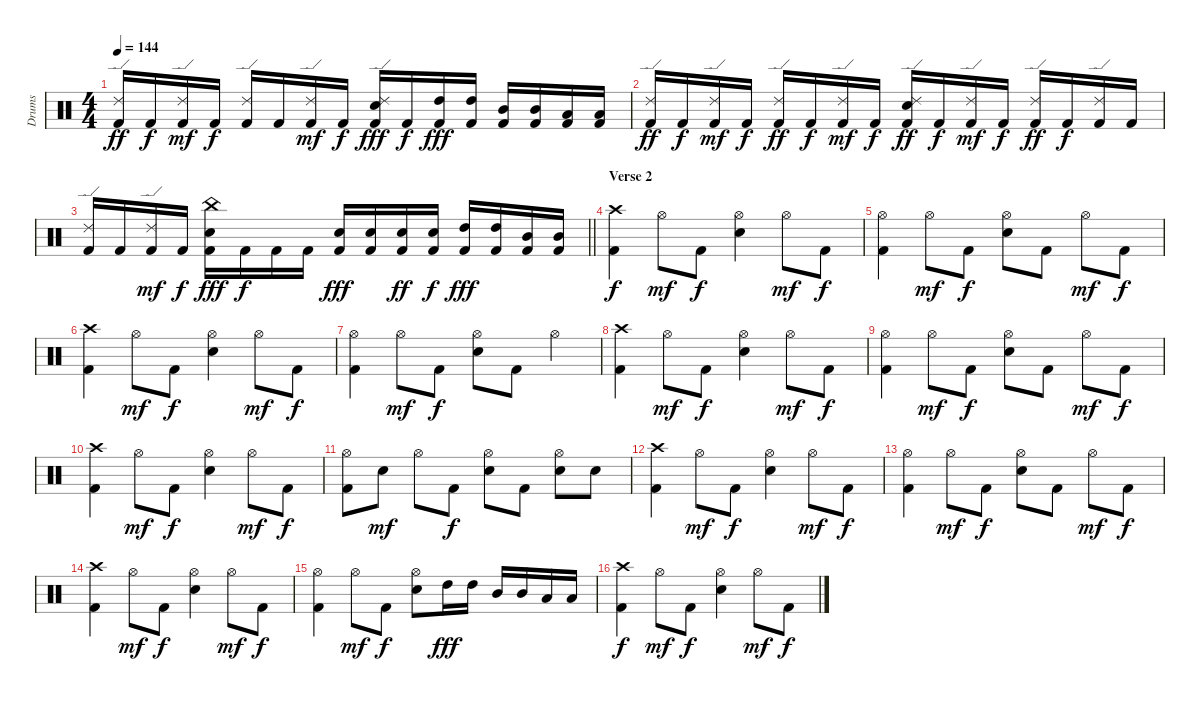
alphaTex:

\track ("Drums" "Drums") {instrument percussion}
\staff {score}
\articulation defaults
\ts (4 4)
\tempo 144
\clef neutral
\ks c
("Ride (edge) 2" "Kick (hit) 2").16{dy ff} "Kick (hit) 2".16{dy f} ("Ride (edge) 2" "Kick (hit) 2").16{dy mf} "Kick (hit) 2".16{dy f} ("Ride (edge) 2" "Kick (hit) 2").16 "Kick (hit) 2".16 ("Ride (edge) 2" "Kick (hit) 2").16{dy mf} "Kick (hit) 2".16{dy f} ("Ride (edge) 2" "Electric Snare (hit)" "Kick (hit) 2").16{dy fff} "Kick (hit) 2".16{dy f} ("High Tom (hit)" "Kick (hit) 2").16{dy fff} ("High Tom (hit)" "Kick (hit) 2").16 ("Mid Tom (hit)" "Kick (hit) 2").16 ("Mid Tom (hit)" "Kick (hit) 2").16 ("Low Tom (hit)" "Kick (hit) 2").16 ("Low Tom (hit)" "Kick (hit) 2").16 |
("Ride (edge) 2" "Kick (hit) 2").16{dy ff} "Kick (hit) 2".16{dy f} ("Ride (edge) 2" "Kick (hit) 2").16{dy mf} "Kick (hit) 2".16{dy f} ("Ride (edge) 2" "Kick (hit) 2").16{dy ff} "Kick (hit) 2".16{dy f} ("Ride (edge) 2" "Kick (hit) 2").16{dy mf} "Kick (hit) 2".16{dy f} ("Ride (edge) 2" "Electric Snare (hit)" "Kick (hit) 2").16{dy ff} "Kick (hit) 2".16{dy f} ("Ride (edge) 2" "Kick (hit) 2").16{dy mf} "Kick (hit) 2".16{dy f} ("Ride (edge) 2" "Kick (hit) 2").16{dy ff} "Kick (hit) 2".16{dy f} ("Ride (edge) 2" "Kick (hit) 2").16 "Kick (hit) 2".16 |
\barLineRight lightlight
("Ride (edge) 2" "Kick (hit) 2").16 "Kick (hit) 2".16 ("Ride (edge) 2" "Kick (hit) 2").16{dy mf} "Kick (hit) 2".16{dy f} ("China (hit)" "Electric Snare (hit)" "Kick (hit) 2").16{dy fff} "Kick (hit) 2".16{dy f} "Kick (hit) 2".16 "Kick (hit) 2".16 ("Electric Snare (hit)" "Kick (hit) 2").16{dy fff} ("Electric Snare (hit)" "Kick (hit) 2").16 ("Electric Snare (hit)" "Kick (hit) 2").16{dy ff} ("Electric Snare (hit)" "Kick (hit) 2").16{dy f} ("High Tom (hit)" "Kick (hit) 2").16{dy fff} ("High Tom (hit)" "Kick (hit) 2").16 ("Mid Tom (hit)" "Kick (hit) 2").16 ("Mid Tom (hit)" "Kick (hit) 2").16 |
\section ("" "Verse 2")
("Crash high (hit)" "Kick (hit) 2").4{dy f} "Hi-Hat (open)".8{dy mf} "Kick (hit) 2".8{dy f} ("Hi-Hat (open)" "Electric Snare (hit)").4 "Hi-Hat (open)".8{dy mf} "Kick (hit) 2".8{dy f} |
("Hi-Hat (open)" "Kick (hit) 2").4 "Hi-Hat (open)".8{dy mf} "Kick (hit) 2".8{dy f} ("Hi-Hat (open)" "Electric Snare (hit)").8 "Kick (hit) 2".8 "Hi-Hat (open)".8{dy mf} "Kick (hit) 2".8{dy f} |
("Crash high (hit)" "Kick (hit) 2").4 "Hi-Hat (open)".8{dy mf} "Kick (hit) 2".8{dy f} ("Hi-Hat (open)" "Electric Snare (hit)").4 "Hi-Hat (open)".8{dy mf} "Kick (hit) 2".8{dy f} |
("Hi-Hat (open)" "Kick (hit) 2").4 "Hi-Hat (open)".8{dy mf} "Kick (hit) 2".8{dy f} ("Hi-Hat (open)" "Electric Snare (hit)").8 "Kick (hit) 2".8 "Hi-Hat (open)".4 |
("Crash high (hit)" "Kick (hit) 2").4 "Hi-Hat (open)".8{dy mf} "Kick (hit) 2".8{dy f} ("Hi-Hat (open)" "Electric Snare (hit)").4 "Hi-Hat (open)".8{dy mf} "Kick (hit) 2".8{dy f} |
("Hi-Hat (open)" "Kick (hit) 2").4 "Hi-Hat (open)".8{dy mf} "Kick (hit) 2".8{dy f} ("Hi-Hat (open)" "Electric Snare (hit)").8 "Kick (hit) 2".8 "Hi-Hat (open)".8{dy mf} "Kick (hit) 2".8{dy f} |
("Crash high (hit)" "Kick (hit) 2").4 "Hi-Hat (open)".8{dy mf} "Kick (hit) 2".8{dy f} ("Hi-Hat (open)" "Electric Snare (hit)").4 "Hi-Hat (open)".8{dy mf} "Kick (hit) 2".8{dy f} |
("Hi-Hat (open)" "Kick (hit) 2").8 "Electric Snare (hit)".8{dy mf} "Hi-Hat (open)".8 "Kick (hit) 2".8{dy f} ("Hi-Hat (open)" "Electric Snare (hit)").8 "Kick (hit) 2".8 ("Hi-Hat (open)" "Electric Snare (hit)").8 "Electric Snare (hit)".8 |
("Crash high (hit)" "Kick (hit) 2").4 "Hi-Hat (open)".8{dy mf} "Kick (hit) 2".8{dy f} ("Hi-Hat (open)" "Electric Snare (hit)").4 "Hi-Hat (open)".8{dy mf} "Kick (hit) 2".8{dy f} |
("Hi-Hat (open)" "Kick (hit) 2").4 "Hi-Hat (open)".8{dy mf} "Kick (hit) 2".8{dy f} ("Hi-Hat (open)" "Electric Snare (hit)").8 "Kick (hit) 2".8 "Hi-Hat (open)".8{dy mf} "Kick (hit) 2".8{dy f} |
("Crash high (hit)" "Kick (hit) 2").4 "Hi-Hat (open)".8{dy mf} "Kick (hit) 2".8{dy f} ("Hi-Hat (open)" "Electric Snare (hit)").4 "Hi-Hat (open)".8{dy mf} "Kick (hit) 2".8{dy f} |
("Hi-Hat (open)" "Kick (hit) 2").4 "Hi-Hat (open)".8{dy mf} "Kick (hit) 2".8{dy f} ("Hi-Hat (open)" "Electric Snare (hit)").8 "High Tom (hit)".16{dy fff} "High Tom (hit)".16 "Mid Tom (hit)".16 "Mid Tom (hit)".16 "Low Tom (hit)".16 "Low Tom (hit)".16 |
("Crash high (hit)" "Kick (hit) 2").4{dy f} "Hi-Hat (open)".8{dy mf} "Kick (hit) 2".8{dy f} ("Hi-Hat (open)" "Electric Snare (hit)").4 "Hi-Hat (open)".8{dy mf} "Kick (hit) 2".8{dy f}
